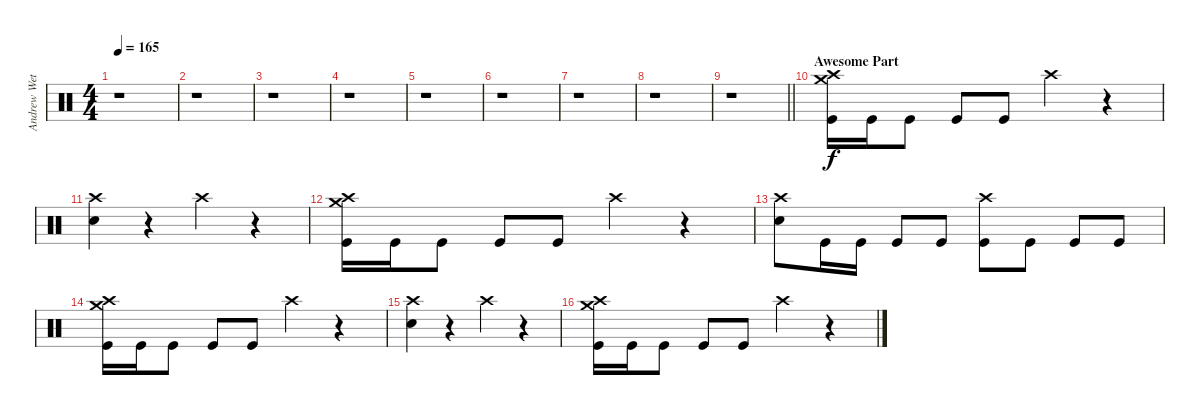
\track ("Andrew Wetzel" "Andrew Wet") {instrument percussion}
\staff {score}
\articulation defaults
\ts (4 4)
\tempo 165
\clef neutral
\ks c
r.1{dy f} |
r.1 |
r.1 |
r.1 |
r.1 |
r.1 |
r.1 |
r.1 |
\barLineRight lightlight
r.1 |
\section ("" "Awesome Part")
("Crash high (hit)" "Crash medium (hit)" "Kick (hit)").16 "Kick (hit)".16 "Kick (hit)".8 "Kick (hit)".8 "Kick (hit)".8 "Crash high (hit)".4 r.4 |
("Crash high (hit)" "Snare (hit) 2").4 r.4 "Crash high (hit)".4 r.4 |
("Crash high (hit)" "Crash medium (hit)" "Kick (hit)").16 "Kick (hit)".16 "Kick (hit)".8 "Kick (hit)".8 "Kick (hit)".8 "Crash high (hit)".4 r.4 |
("Crash high (hit)" "Snare (hit) 2").8 "Kick (hit)".16 "Kick (hit)".16 "Kick (hit)".8 "Kick (hit)".8 ("Crash high (hit)" "Kick (hit)").8 "Kick (hit)".8 "Kick (hit)".8 "Kick (hit)".8 |
("Crash high (hit)" "Crash medium (hit)" "Kick (hit)").16 "Kick (hit)".16 "Kick (hit)".8 "Kick (hit)".8 "Kick (hit)".8 "Crash high (hit)".4 r.4 |
("Crash high (hit)" "Snare (hit) 2").4 r.4 "Crash high (hit)".4 r.4 |
("Crash high (hit)" "Crash medium (hit)" "Kick (hit)").16 "Kick (hit)".16 "Kick (hit)".8 "Kick (hit)".8 "Kick (hit)".8 "Crash high (hit)".4 r.4
